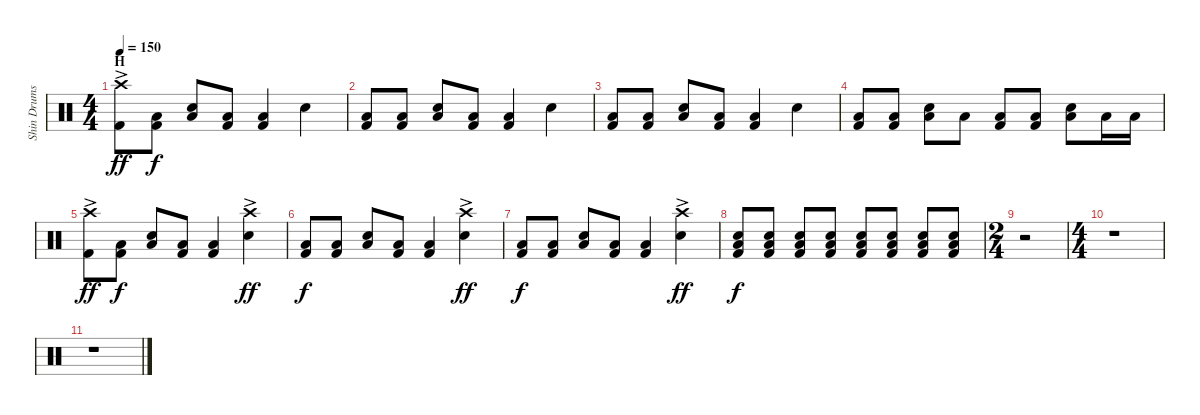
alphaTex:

\track ("Shin Drums" "Shin Drums") {instrument percussion}
\staff {score}
\articulation defaults
\ts (4 4)
\section ("" "H")
\tempo 150
\clef neutral
\ks c
("Crash high (hit)"{ac} "Kick (hit) 2").8{dy ff} ("Low Floor Tom (hit)" "Kick (hit) 2").8{dy f} ("Snare (hit) 2" "Low Floor Tom (hit)").8 ("Low Floor Tom (hit)" "Kick (hit) 2").8 ("Low Floor Tom (hit)" "Kick (hit) 2").4 "Snare (hit) 2".4 |
("Low Floor Tom (hit)" "Kick (hit) 2").8 ("Low Floor Tom (hit)" "Kick (hit) 2").8 ("Snare (hit) 2" "Low Floor Tom (hit)").8 ("Low Floor Tom (hit)" "Kick (hit) 2").8 ("Low Floor Tom (hit)" "Kick (hit) 2").4 "Snare (hit) 2".4 |
("Low Floor Tom (hit)" "Kick (hit) 2").8 ("Low Floor Tom (hit)" "Kick (hit) 2").8 ("Snare (hit) 2" "Low Floor Tom (hit)").8 ("Low Floor Tom (hit)" "Kick (hit) 2").8 ("Low Floor Tom (hit)" "Kick (hit) 2").4 "Snare (hit) 2".4 |
("Low Floor Tom (hit)" "Kick (hit) 2").8 ("Low Floor Tom (hit)" "Kick (hit) 2").8 ("Snare (hit) 2" "Low Floor Tom (hit)").8 "Low Floor Tom (hit)".8 ("Low Floor Tom (hit)" "Kick (hit) 2").8 ("Low Floor Tom (hit)" "Kick (hit) 2").8 ("Snare (hit) 2" "Low Floor Tom (hit)").8 "Low Floor Tom (hit)".16 "Low Floor Tom (hit)".16 |
("Crash high (hit)"{ac} "Kick (hit) 2").8{dy ff} ("Low Floor Tom (hit)" "Kick (hit) 2").8{dy f} ("Snare (hit) 2" "Low Floor Tom (hit)").8 ("Low Floor Tom (hit)" "Kick (hit) 2").8 ("Low Floor Tom (hit)" "Kick (hit) 2").4 ("Crash high (hit)"{ac} "Snare (hit) 2").4{dy ff} |
("Low Floor Tom (hit)" "Kick (hit) 2").8{dy f} ("Low Floor Tom (hit)" "Kick (hit) 2").8 ("Snare (hit) 2" "Low Floor Tom (hit)").8 ("Low Floor Tom (hit)" "Kick (hit) 2").8 ("Low Floor Tom (hit)" "Kick (hit) 2").4 ("Crash high (hit)"{ac} "Snare (hit) 2").4{dy ff} |
("Low Floor Tom (hit)" "Kick (hit) 2").8{dy f} ("Low Floor Tom (hit)" "Kick (hit) 2").8 ("Snare (hit) 2" "Low Floor Tom (hit)").8 ("Low Floor Tom (hit)" "Kick (hit) 2").8 ("Low Floor Tom (hit)" "Kick (hit) 2").4 ("Crash high (hit)"{ac} "Snare (hit) 2").4{dy ff} |
("Snare (hit) 2" "Low Floor Tom (hit)" "Kick (hit) 2").8{dy f} ("Snare (hit) 2" "Low Floor Tom (hit)" "Kick (hit) 2").8 ("Snare (hit) 2" "Low Floor Tom (hit)" "Kick (hit) 2").8 ("Snare (hit) 2" "Low Floor Tom (hit)" "Kick (hit) 2").8 ("Snare (hit) 2" "Low Floor Tom (hit)" "Kick (hit) 2").8 ("Snare (hit) 2" "Low Floor Tom (hit)" "Kick (hit) 2").8 ("Snare (hit) 2" "Low Floor Tom (hit)" "Kick (hit) 2").8 ("Snare (hit) 2" "Low Floor Tom (hit)" "Kick (hit) 2").8 |
\ts (2 4)
r.2 |
\ts (4 4)
r.1 |
r.1
